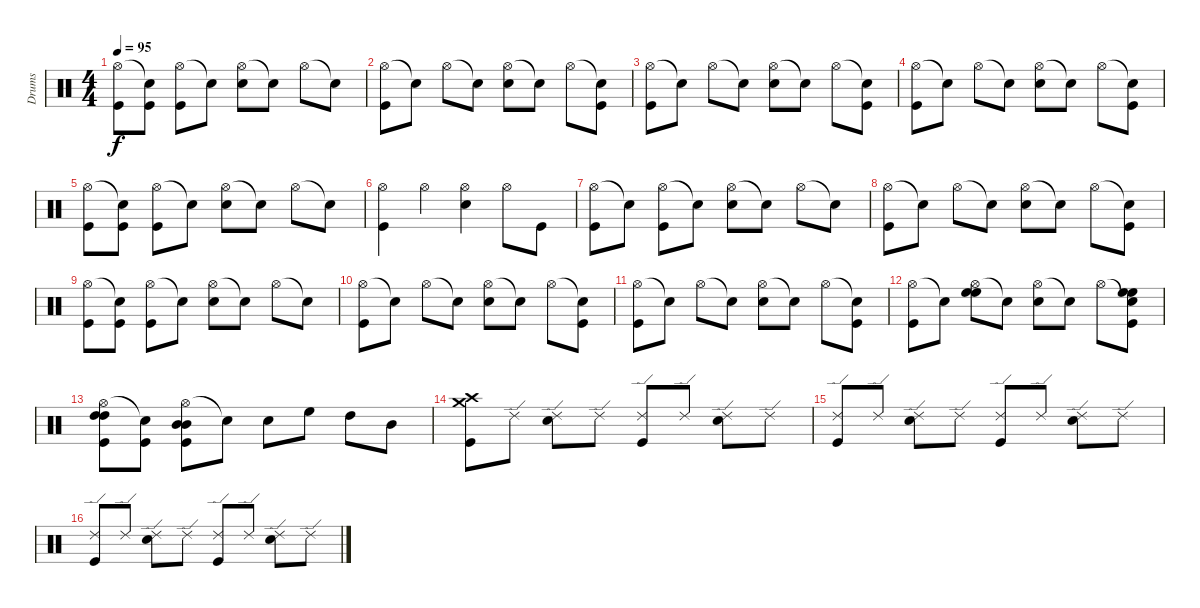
\track ("Drums" "Drums") {instrument percussion}
\staff {score}
\articulation defaults
\ts (4 4)
\tempo 95
\clef neutral
\ks c
("Hi-Hat (open)" "Kick (hit)").8{dy f} ("Snare (hit)"{t} "Kick (hit)").8 ("Hi-Hat (open)" "Kick (hit)").8 "Snare (hit)"{t}.8 ("Hi-Hat (open)" "Snare (hit) 2").8 "Snare (hit)"{t}.8 "Hi-Hat (open)".8 "Snare (hit)"{t}.8 |
("Hi-Hat (open)" "Kick (hit)").8 "Snare (hit)"{t}.8 "Hi-Hat (open)".8 "Snare (hit)"{t}.8 ("Hi-Hat (open)" "Snare (hit) 2").8 "Snare (hit)"{t}.8 "Hi-Hat (open)".8 ("Snare (hit)"{t} "Kick (hit)").8 |
("Hi-Hat (open)" "Kick (hit)").8 "Snare (hit)"{t}.8 "Hi-Hat (open)".8 "Snare (hit)"{t}.8 ("Hi-Hat (open)" "Snare (hit) 2").8 "Snare (hit)"{t}.8 "Hi-Hat (open)".8 ("Snare (hit)"{t} "Kick (hit)").8 |
("Hi-Hat (open)" "Kick (hit)").8 "Snare (hit)"{t}.8 "Hi-Hat (open)".8 "Snare (hit)"{t}.8 ("Hi-Hat (open)" "Snare (hit) 2").8 "Snare (hit)"{t}.8 "Hi-Hat (open)".8 ("Snare (hit)"{t} "Kick (hit)").8 |
("Hi-Hat (open)" "Kick (hit)").8 ("Snare (hit)"{t} "Kick (hit)").8 ("Hi-Hat (open)" "Kick (hit)").8 "Snare (hit)"{t}.8 ("Hi-Hat (open)" "Snare (hit) 2").8 "Snare (hit)"{t}.8 "Hi-Hat (open)".8 "Snare (hit)"{t}.8 |
("Hi-Hat (open)" "Kick (hit)").4 "Hi-Hat (open)".4 ("Hi-Hat (open)" "Snare (hit) 2").4 "Hi-Hat (open)".8 "Kick (hit)".8 |
("Hi-Hat (open)" "Kick (hit)").8 "Snare (hit)"{t}.8 ("Hi-Hat (open)" "Kick (hit)").8 "Snare (hit)"{t}.8 ("Hi-Hat (open)" "Snare (hit) 2").8 "Snare (hit)"{t}.8 "Hi-Hat (open)".8 "Snare (hit)"{t}.8 |
("Hi-Hat (open)" "Kick (hit)").8 "Snare (hit)"{t}.8 "Hi-Hat (open)".8 "Snare (hit)"{t}.8 ("Hi-Hat (open)" "Snare (hit) 2").8 "Snare (hit)"{t}.8 "Hi-Hat (open)".8 ("Snare (hit)"{t} "Kick (hit)").8 |
("Hi-Hat (open)" "Kick (hit)").8 ("Snare (hit)"{t} "Kick (hit)").8 ("Hi-Hat (open)" "Kick (hit)").8 "Snare (hit)"{t}.8 ("Hi-Hat (open)" "Snare (hit) 2").8 "Snare (hit)"{t}.8 "Hi-Hat (open)".8 "Snare (hit)"{t}.8 |
("Hi-Hat (open)" "Kick (hit)").8 "Snare (hit)"{t}.8 "Hi-Hat (open)".8 "Snare (hit)"{t}.8 ("Hi-Hat (open)" "Snare (hit) 2").8 "Snare (hit)"{t}.8 "Hi-Hat (open)".8 ("Snare (hit)"{t} "Kick (hit)").8 |
("Hi-Hat (open)" "Kick (hit)").8 "Snare (hit)"{t}.8 "Hi-Hat (open)".8 "Snare (hit)"{t}.8 ("Hi-Hat (open)" "Snare (hit) 2").8 "Snare (hit)"{t}.8 "Hi-Hat (open)".8 ("Snare (hit)"{t} "Kick (hit)").8 |
("Hi-Hat (open)" "Kick (hit)").8 "Snare (hit)"{t}.8 ("Hi-Hat (open)" "High Floor Tom (hit)" "High Floor Tom (hit)").8 "Snare (hit)"{t}.8 ("Hi-Hat (open)" "Snare (hit) 2").8 "Snare (hit)"{t}.8 "Hi-Hat (open)".8 ("Snare (hit)"{t} "High Floor Tom (hit)" "Kick (hit)" "High Floor Tom (hit)").8 |
("Hi-Hat (open)" "High Tom (hit)" "Kick (hit)" "High Tom (hit)").8 ("Snare (hit)"{t} "Kick (hit)").8 ("Hi-Hat (open)" "Mid Tom (hit)" "Kick (hit)" "Mid Tom (hit)").8 "Snare (hit)"{t}.8 "Snare (hit) 2".8 "High Floor Tom (hit)".8 "High Tom (hit)".8 "Mid Tom (hit)".8 |
("Crash medium (hit)" "Crash high (hit)" "Kick (hit)").8 "Ride (edge) 2".8 ("Ride (edge) 2" "Electric Snare (hit)").8 "Ride (edge) 2".8 ("Ride (edge) 2" "Kick (hit)").8 "Ride (edge) 2".8 ("Ride (edge) 2" "Electric Snare (hit)").8 "Ride (edge) 2".8 |
("Ride (edge) 2" "Kick (hit)").8 "Ride (edge) 2".8 ("Ride (edge) 2" "Electric Snare (hit)").8 "Ride (edge) 2".8 ("Ride (edge) 2" "Kick (hit)").8 "Ride (edge) 2".8 ("Ride (edge) 2" "Electric Snare (hit)").8 "Ride (edge) 2".8 |
("Ride (edge) 2" "Kick (hit)").8 "Ride (edge) 2".8 ("Ride (edge) 2" "Electric Snare (hit)").8 "Ride (edge) 2".8 ("Ride (edge) 2" "Kick (hit)").8 "Ride (edge) 2".8 ("Ride (edge) 2" "Electric Snare (hit)").8 "Ride (edge) 2".8
